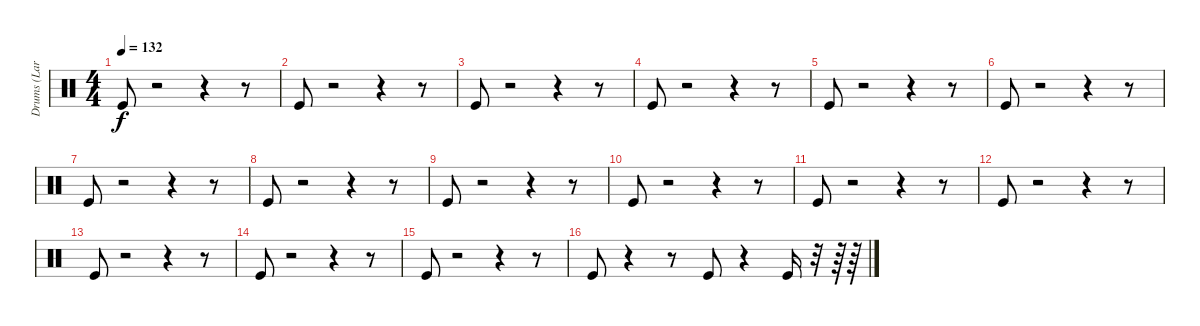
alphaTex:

\track ("Drums (Lars)" "Drums (Lar") {instrument percussion}
\staff {score}
\articulation defaults
\ts (4 4)
\tempo 132
\clef neutral
\ks c "Kick (hit)".8{dy f}
r.2 r.4 r.8 |
"Kick (hit)".8 r.2 r.4 r.8 |
"Kick (hit)".8 r.2 r.4 r.8 |
"Kick (hit)".8 r.2 r.4 r.8 |
"Kick (hit)".8 r.2 r.4 r.8 |
"Kick (hit)".8 r.2 r.4 r.8 |
"Kick (hit)".8 r.2 r.4 r.8 |
"Kick (hit)".8 r.2 r.4 r.8 |
"Kick (hit)".8 r.2 r.4 r.8 |
"Kick (hit)".8 r.2 r.4 r.8 |
"Kick (hit)".8 r.2 r.4 r.8 |
"Kick (hit)".8 r.2 r.4 r.8 |
"Kick (hit)".8 r.2 r.4 r.8 |
"Kick (hit)".8 r.2 r.4 r.8 |
"Kick (hit)".8 r.2 r.4 r.8 |
"Kick (hit)".8 r.4 r.8 "Kick (hit)".8 r.4 "Kick (hit)".16 r.32 r.64 r.64
